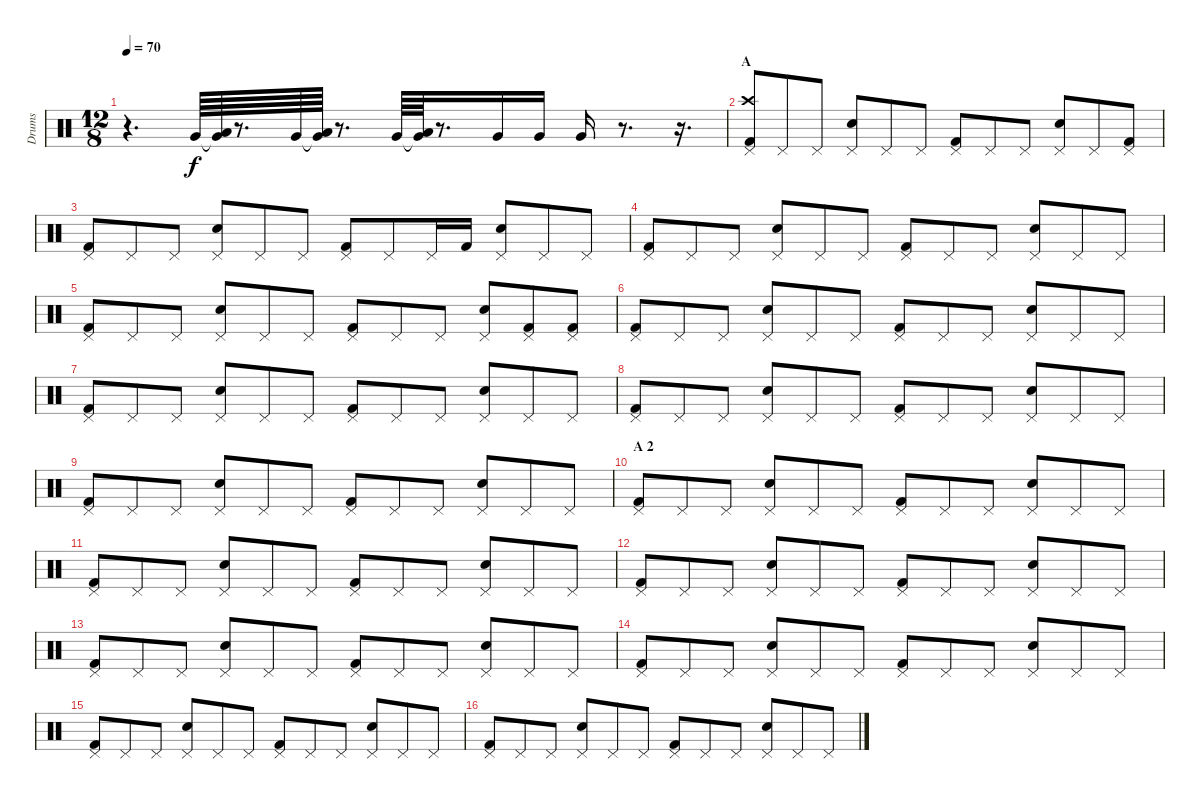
\track ("Drums" "Drums") {instrument percussion}
\staff {score}
\articulation defaults
\ts (12 8)
\tempo 70
\clef neutral
\ks c
r.4{d dy f} "Very Low Tom (hit)".64 ("Very Low Tom (hit)"{t} "Low Tom (hit)").64 r.8{d} "Very Low Tom (hit)".64 ("Very Low Tom (hit)"{t} "Low Tom (hit)").64 r.8{d} "Very Low Tom (hit)".64 ("Very Low Tom (hit)"{t} "Low Tom (hit)").64 r.8{d} "Very Low Tom (hit)".16 "Very Low Tom (hit)".16 "Very Low Tom (hit)".16 r.8{d} r.16{d} |
\section ("" "A")
("Pedal Hi-Hat (hit)" "Crash high (hit)" "Kick (hit) 2").8 "Pedal Hi-Hat (hit)".8 "Pedal Hi-Hat (hit)".8 ("Pedal Hi-Hat (hit)" "Electric Snare (hit)").8 "Pedal Hi-Hat (hit)".8 "Pedal Hi-Hat (hit)".8 ("Pedal Hi-Hat (hit)" "Kick (hit) 2").8 "Pedal Hi-Hat (hit)".8 "Pedal Hi-Hat (hit)".8 ("Pedal Hi-Hat (hit)" "Electric Snare (hit)").8 "Pedal Hi-Hat (hit)".8 ("Pedal Hi-Hat (hit)" "Kick (hit) 2").8 |
("Pedal Hi-Hat (hit)" "Kick (hit) 2").8 "Pedal Hi-Hat (hit)".8 "Pedal Hi-Hat (hit)".8 ("Pedal Hi-Hat (hit)" "Electric Snare (hit)").8 "Pedal Hi-Hat (hit)".8 "Pedal Hi-Hat (hit)".8 ("Pedal Hi-Hat (hit)" "Kick (hit) 2").8 "Pedal Hi-Hat (hit)".8 "Pedal Hi-Hat (hit)".16 "Kick (hit) 2".16 ("Pedal Hi-Hat (hit)" "Electric Snare (hit)").8 "Pedal Hi-Hat (hit)".8 "Pedal Hi-Hat (hit)".8 |
("Pedal Hi-Hat (hit)" "Kick (hit) 2").8 "Pedal Hi-Hat (hit)".8 "Pedal Hi-Hat (hit)".8 ("Pedal Hi-Hat (hit)" "Electric Snare (hit)").8 "Pedal Hi-Hat (hit)".8 "Pedal Hi-Hat (hit)".8 ("Pedal Hi-Hat (hit)" "Kick (hit) 2").8 "Pedal Hi-Hat (hit)".8 "Pedal Hi-Hat (hit)".8 ("Pedal Hi-Hat (hit)" "Electric Snare (hit)").8 "Pedal Hi-Hat (hit)".8 "Pedal Hi-Hat (hit)".8 |
("Pedal Hi-Hat (hit)" "Kick (hit) 2").8 "Pedal Hi-Hat (hit)".8 "Pedal Hi-Hat (hit)".8 ("Pedal Hi-Hat (hit)" "Electric Snare (hit)").8 "Pedal Hi-Hat (hit)".8 "Pedal Hi-Hat (hit)".8 ("Pedal Hi-Hat (hit)" "Kick (hit) 2").8 "Pedal Hi-Hat (hit)".8 "Pedal Hi-Hat (hit)".8 ("Pedal Hi-Hat (hit)" "Electric Snare (hit)").8 ("Pedal Hi-Hat (hit)" "Kick (hit) 2").8 ("Pedal Hi-Hat (hit)" "Kick (hit) 2").8 |
("Pedal Hi-Hat (hit)" "Kick (hit) 2").8 "Pedal Hi-Hat (hit)".8 "Pedal Hi-Hat (hit)".8 ("Pedal Hi-Hat (hit)" "Electric Snare (hit)").8 "Pedal Hi-Hat (hit)".8 "Pedal Hi-Hat (hit)".8 ("Pedal Hi-Hat (hit)" "Kick (hit) 2").8 "Pedal Hi-Hat (hit)".8 "Pedal Hi-Hat (hit)".8 ("Pedal Hi-Hat (hit)" "Electric Snare (hit)").8 "Pedal Hi-Hat (hit)".8 "Pedal Hi-Hat (hit)".8 |
("Pedal Hi-Hat (hit)" "Kick (hit) 2").8 "Pedal Hi-Hat (hit)".8 "Pedal Hi-Hat (hit)".8 ("Pedal Hi-Hat (hit)" "Electric Snare (hit)").8 "Pedal Hi-Hat (hit)".8 "Pedal Hi-Hat (hit)".8 ("Pedal Hi-Hat (hit)" "Kick (hit) 2").8 "Pedal Hi-Hat (hit)".8 "Pedal Hi-Hat (hit)".8 ("Pedal Hi-Hat (hit)" "Electric Snare (hit)").8 "Pedal Hi-Hat (hit)".8 "Pedal Hi-Hat (hit)".8 |
("Pedal Hi-Hat (hit)" "Kick (hit) 2").8 "Pedal Hi-Hat (hit)".8 "Pedal Hi-Hat (hit)".8 ("Pedal Hi-Hat (hit)" "Electric Snare (hit)").8 "Pedal Hi-Hat (hit)".8 "Pedal Hi-Hat (hit)".8 ("Pedal Hi-Hat (hit)" "Kick (hit) 2").8 "Pedal Hi-Hat (hit)".8 "Pedal Hi-Hat (hit)".8 ("Pedal Hi-Hat (hit)" "Electric Snare (hit)").8 "Pedal Hi-Hat (hit)".8 "Pedal Hi-Hat (hit)".8 |
("Pedal Hi-Hat (hit)" "Kick (hit) 2").8 "Pedal Hi-Hat (hit)".8 "Pedal Hi-Hat (hit)".8 ("Pedal Hi-Hat (hit)" "Electric Snare (hit)").8 "Pedal Hi-Hat (hit)".8 "Pedal Hi-Hat (hit)".8 ("Pedal Hi-Hat (hit)" "Kick (hit) 2").8 "Pedal Hi-Hat (hit)".8 "Pedal Hi-Hat (hit)".8 ("Pedal Hi-Hat (hit)" "Electric Snare (hit)").8 "Pedal Hi-Hat (hit)".8 "Pedal Hi-Hat (hit)".8 |
\section ("" "A 2")
("Pedal Hi-Hat (hit)" "Kick (hit) 2").8 "Pedal Hi-Hat (hit)".8 "Pedal Hi-Hat (hit)".8 ("Pedal Hi-Hat (hit)" "Electric Snare (hit)").8 "Pedal Hi-Hat (hit)".8 "Pedal Hi-Hat (hit)".8 ("Pedal Hi-Hat (hit)" "Kick (hit) 2").8 "Pedal Hi-Hat (hit)".8 "Pedal Hi-Hat (hit)".8 ("Pedal Hi-Hat (hit)" "Electric Snare (hit)").8 "Pedal Hi-Hat (hit)".8 "Pedal Hi-Hat (hit)".8 |
("Pedal Hi-Hat (hit)" "Kick (hit) 2").8 "Pedal Hi-Hat (hit)".8 "Pedal Hi-Hat (hit)".8 ("Pedal Hi-Hat (hit)" "Electric Snare (hit)").8 "Pedal Hi-Hat (hit)".8 "Pedal Hi-Hat (hit)".8 ("Pedal Hi-Hat (hit)" "Kick (hit) 2").8 "Pedal Hi-Hat (hit)".8 "Pedal Hi-Hat (hit)".8 ("Pedal Hi-Hat (hit)" "Electric Snare (hit)").8 "Pedal Hi-Hat (hit)".8 "Pedal Hi-Hat (hit)".8 |
("Pedal Hi-Hat (hit)" "Kick (hit) 2").8 "Pedal Hi-Hat (hit)".8 "Pedal Hi-Hat (hit)".8 ("Pedal Hi-Hat (hit)" "Electric Snare (hit)").8 "Pedal Hi-Hat (hit)".8 "Pedal Hi-Hat (hit)".8 ("Pedal Hi-Hat (hit)" "Kick (hit) 2").8 "Pedal Hi-Hat (hit)".8 "Pedal Hi-Hat (hit)".8 ("Pedal Hi-Hat (hit)" "Electric Snare (hit)").8 "Pedal Hi-Hat (hit)".8 "Pedal Hi-Hat (hit)".8 |
("Pedal Hi-Hat (hit)" "Kick (hit) 2").8 "Pedal Hi-Hat (hit)".8 "Pedal Hi-Hat (hit)".8 ("Pedal Hi-Hat (hit)" "Electric Snare (hit)").8 "Pedal Hi-Hat (hit)".8 "Pedal Hi-Hat (hit)".8 ("Pedal Hi-Hat (hit)" "Kick (hit) 2").8 "Pedal Hi-Hat (hit)".8 "Pedal Hi-Hat (hit)".8 ("Pedal Hi-Hat (hit)" "Electric Snare (hit)").8 "Pedal Hi-Hat (hit)".8 "Pedal Hi-Hat (hit)".8 |
("Pedal Hi-Hat (hit)" "Kick (hit) 2").8 "Pedal Hi-Hat (hit)".8 "Pedal Hi-Hat (hit)".8 ("Pedal Hi-Hat (hit)" "Electric Snare (hit)").8 "Pedal Hi-Hat (hit)".8 "Pedal Hi-Hat (hit)".8 ("Pedal Hi-Hat (hit)" "Kick (hit) 2").8 "Pedal Hi-Hat (hit)".8 "Pedal Hi-Hat (hit)".8 ("Pedal Hi-Hat (hit)" "Electric Snare (hit)").8 "Pedal Hi-Hat (hit)".8 "Pedal Hi-Hat (hit)".8 |
("Pedal Hi-Hat (hit)" "Kick (hit) 2").8 "Pedal Hi-Hat (hit)".8 "Pedal Hi-Hat (hit)".8 ("Pedal Hi-Hat (hit)" "Electric Snare (hit)").8 "Pedal Hi-Hat (hit)".8 "Pedal Hi-Hat (hit)".8 ("Pedal Hi-Hat (hit)" "Kick (hit) 2").8 "Pedal Hi-Hat (hit)".8 "Pedal Hi-Hat (hit)".8 ("Pedal Hi-Hat (hit)" "Electric Snare (hit)").8 "Pedal Hi-Hat (hit)".8 "Pedal Hi-Hat (hit)".8 |
("Pedal Hi-Hat (hit)" "Kick (hit) 2").8 "Pedal Hi-Hat (hit)".8 "Pedal Hi-Hat (hit)".8 ("Pedal Hi-Hat (hit)" "Electric Snare (hit)").8 "Pedal Hi-Hat (hit)".8 "Pedal Hi-Hat (hit)".8 ("Pedal Hi-Hat (hit)" "Kick (hit) 2").8 "Pedal Hi-Hat (hit)".8 "Pedal Hi-Hat (hit)".8 ("Pedal Hi-Hat (hit)" "Electric Snare (hit)").8 "Pedal Hi-Hat (hit)".8 "Pedal Hi-Hat (hit)".8
